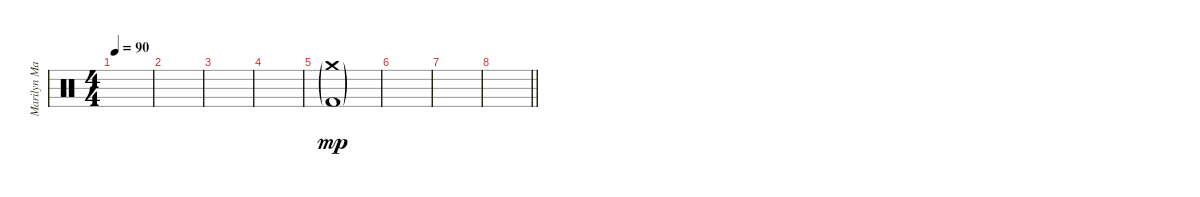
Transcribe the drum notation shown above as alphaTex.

\track ("Marilyn Manson" "Marilyn Ma") {instrument percussion}
\staff {score}
\articulation defaults
\ts (4 4)
\tempo 90
\clef neutral
\ks c
|
|
|
|
("Crash medium (hit)"{g} "Kick (hit) 2"{g}).1{dy mp volume 8} |
|
|
\barLineRight lightlight
